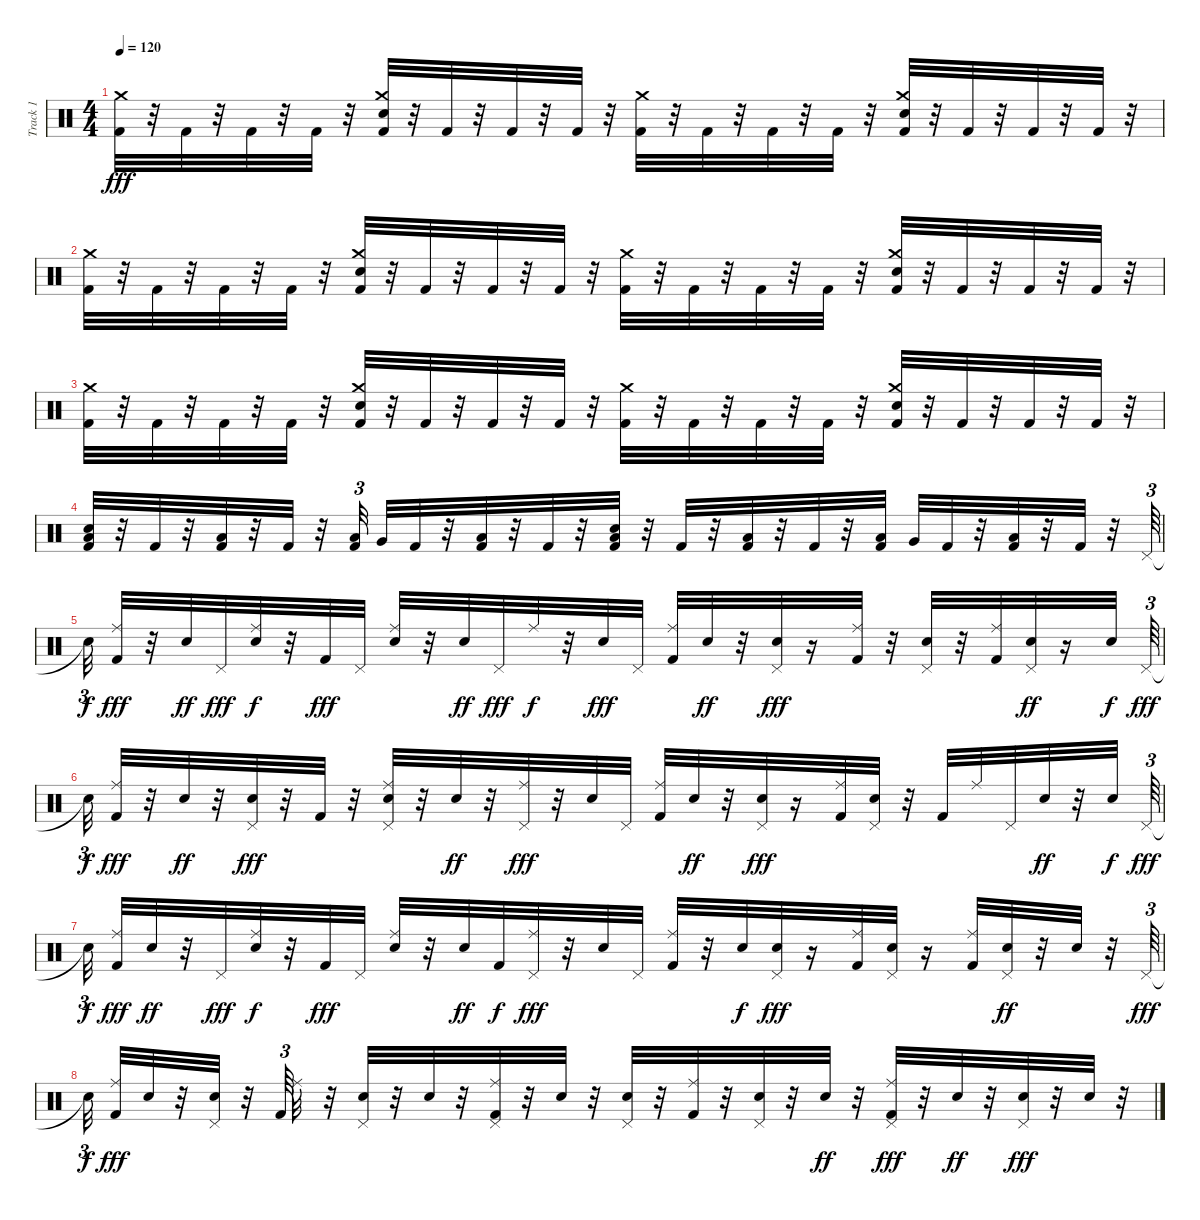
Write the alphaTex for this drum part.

\track ("Track 1" "Track 1") {instrument percussion}
\staff {score}
\articulation defaults
\ts (4 4)
\tempo 120
\clef neutral
\ks c
("Kick (hit) 2" "Crash medium (hit)").32{dy fff} r.32 "Kick (hit) 2".32 r.32 "Kick (hit) 2".32 r.32 "Kick (hit) 2".32 r.32 ("Crash medium (hit)" "Kick (hit) 2" "Snare (hit) 2").32 r.32 "Kick (hit) 2".32 r.32 "Kick (hit) 2".32 r.32 "Kick (hit) 2".32 r.32 ("Kick (hit) 2" "Crash medium (hit)").32 r.32 "Kick (hit) 2".32 r.32 "Kick (hit) 2".32 r.32 "Kick (hit) 2".32 r.32 ("Crash medium (hit)" "Kick (hit) 2" "Snare (hit) 2").32 r.32 "Kick (hit) 2".32 r.32 "Kick (hit) 2".32 r.32 "Kick (hit) 2".32 r.32 |
("Kick (hit) 2" "Crash medium (hit)").32 r.32 "Kick (hit) 2".32 r.32 "Kick (hit) 2".32 r.32 "Kick (hit) 2".32 r.32 ("Crash medium (hit)" "Kick (hit) 2" "Snare (hit) 2").32 r.32 "Kick (hit) 2".32 r.32 "Kick (hit) 2".32 r.32 "Kick (hit) 2".32 r.32 ("Kick (hit) 2" "Crash medium (hit)").32 r.32 "Kick (hit) 2".32 r.32 "Kick (hit) 2".32 r.32 "Kick (hit) 2".32 r.32 ("Snare (hit) 2" "Crash medium (hit)" "Kick (hit) 2").32 r.32 "Kick (hit) 2".32 r.32 "Kick (hit) 2".32 r.32 "Kick (hit) 2".32 r.32 |
("Kick (hit) 2" "Crash medium (hit)").32 r.32 "Kick (hit) 2".32 r.32 "Kick (hit) 2".32 r.32 "Kick (hit) 2".32 r.32 ("Crash medium (hit)" "Snare (hit) 2" "Kick (hit) 2").32 r.32 "Kick (hit) 2".32 r.32 "Kick (hit) 2".32 r.32 "Kick (hit) 2".32 r.32 ("Kick (hit) 2" "Crash medium (hit)").32 r.32 "Kick (hit) 2".32 r.32 "Kick (hit) 2".32 r.32 "Kick (hit) 2".32 r.32 ("Snare (hit) 2" "Crash medium (hit)" "Kick (hit) 2").32 r.32 "Kick (hit) 2".32 r.32 "Kick (hit) 2".32 r.32 "Kick (hit) 2".32 r.32 |
("Kick (hit) 2" "Low Floor Tom (hit)" "Snare (hit) 2").32 r.32 "Kick (hit) 2".32 r.32 ("Kick (hit) 2" "Low Floor Tom (hit)").32 r.32 "Kick (hit) 2".32 r.32 ("Kick (hit) 2" "Low Floor Tom (hit)").32{tu (3 2) beam splitsecondary} "Very Low Tom (hit)".32 "Kick (hit) 2".32 r.32 ("Kick (hit) 2" "Low Floor Tom (hit)").32 r.32 "Kick (hit) 2".32 r.32 ("Kick (hit) 2" "Low Floor Tom (hit)" "Snare (hit) 2").32 r.32 "Kick (hit) 2".32 r.32 ("Kick (hit) 2" "Low Floor Tom (hit)").32 r.32 "Kick (hit) 2".32 r.32 ("Kick (hit) 2" "Low Floor Tom (hit)").32 "Very Low Tom (hit)".32 "Kick (hit) 2".32 r.32 ("Kick (hit) 2" "Low Floor Tom (hit)").32 r.32 "Kick (hit) 2".32 r.32 "Pedal Hi-Hat (hit)".64{tu (3 2)} |
"Snare (hit)"{t}.32{tu (3 2) dy f} ("Kick (hit) 2" "Ride (middle)").32{dy fff} r.32 "Snare (hit) 2".32{dy ff} "Pedal Hi-Hat (hit)".32{dy fff} ("Snare (hit) 2" "Ride (middle)").32{dy f} r.32 "Kick (hit) 2".32{dy fff} "Pedal Hi-Hat (hit)".32 ("Ride (middle)" "Snare (hit) 2").32 r.32 "Snare (hit) 2".32{dy ff} "Pedal Hi-Hat (hit)".32{dy fff} "Ride (middle)".32{dy f} r.32 "Snare (hit) 2".32{dy fff} "Pedal Hi-Hat (hit)".32 ("Kick (hit) 2" "Ride (middle)").32 "Snare (hit) 2".32{dy ff} r.32 ("Pedal Hi-Hat (hit)" "Snare (hit) 2").32{dy fff} r.16 ("Kick (hit) 2" "Ride (middle)").32 r.32 ("Pedal Hi-Hat (hit)" "Snare (hit) 2").32 r.32 ("Ride (middle)" "Kick (hit) 2").32 ("Pedal Hi-Hat (hit)" "Snare (hit) 2").32{dy ff} r.16 "Snare (hit) 2".32{dy f} "Pedal Hi-Hat (hit)".64{tu (3 2) dy fff} |
"Snare (hit)"{t}.32{tu (3 2) dy f} ("Kick (hit) 2" "Ride (middle)").32{dy fff} r.32 "Snare (hit) 2".32{dy ff} r.32 ("Pedal Hi-Hat (hit)" "Snare (hit) 2").32{dy fff} r.32 "Kick (hit) 2".32 r.32 ("Pedal Hi-Hat (hit)" "Ride (middle)" "Snare (hit) 2").32 r.32 "Snare (hit) 2".32{dy ff} r.32 ("Pedal Hi-Hat (hit)" "Ride (middle)").32{dy fff} r.32 "Snare (hit) 2".32 "Pedal Hi-Hat (hit)".32 ("Kick (hit) 2" "Ride (middle)").32 "Snare (hit) 2".32{dy ff} r.32 ("Snare (hit) 2" "Pedal Hi-Hat (hit)").32{dy fff} r.16 ("Kick (hit) 2" "Ride (middle)").32 ("Pedal Hi-Hat (hit)" "Snare (hit) 2").32 r.32 "Kick (hit) 2".32 "Ride (middle)".32 "Pedal Hi-Hat (hit)".32 "Snare (hit) 2".32{dy ff} r.32 "Snare (hit) 2".32{dy f} "Pedal Hi-Hat (hit)".64{tu (3 2) dy fff} |
"Snare (hit)"{t}.32{tu (3 2) dy f beam splitsecondary} ("Kick (hit) 2" "Ride (middle)").32{dy fff} "Snare (hit) 2".32{dy ff} r.32 "Pedal Hi-Hat (hit)".32{dy fff} ("Snare (hit) 2" "Ride (middle)").32{dy f} r.32 "Kick (hit) 2".32{dy fff} "Pedal Hi-Hat (hit)".32 ("Snare (hit) 2" "Ride (middle)").32 r.32 "Snare (hit) 2".32{dy ff} "Kick (hit) 2".32{dy f} ("Pedal Hi-Hat (hit)" "Ride (middle)").32{dy fff} r.32 "Snare (hit) 2".32 "Pedal Hi-Hat (hit)".32 ("Kick (hit) 2" "Ride (middle)").32 r.32 "Snare (hit) 2".32{dy f} ("Snare (hit) 2" "Pedal Hi-Hat (hit)").32{dy fff} r.16 ("Kick (hit) 2" "Ride (middle)").32 ("Snare (hit) 2" "Pedal Hi-Hat (hit)").32 r.16 ("Kick (hit) 2" "Ride (middle)").32 ("Pedal Hi-Hat (hit)" "Snare (hit) 2").32{dy ff} r.32 "Snare (hit) 2".32 r.32 "Pedal Hi-Hat (hit)".64{tu (3 2) dy fff} |
"Snare (hit)"{t}.32{tu (3 2) dy f beam splitsecondary} ("Kick (hit) 2" "Ride (middle)").32{dy fff} "Snare (hit) 2".32 r.32 ("Pedal Hi-Hat (hit)" "Snare (hit) 2").32 r.32 "Kick (hit) 2".64{tu (3 2)} "Ride (middle)".32 r.32 ("Pedal Hi-Hat (hit)" "Snare (hit) 2").32 r.32 "Snare (hit) 2".32 r.32 ("Pedal Hi-Hat (hit)" "Kick (hit) 2" "Ride (middle)").32 r.32 "Snare (hit) 2".32 r.32 ("Snare (hit) 2" "Pedal Hi-Hat (hit)").32 r.32 ("Kick (hit) 2" "Ride (middle)").32 r.32 ("Snare (hit) 2" "Pedal Hi-Hat (hit)").32 r.32 "Snare (hit) 2".32{dy ff} r.32 ("Kick (hit) 2" "Pedal Hi-Hat (hit)" "Ride (middle)").32{dy fff} r.32 "Snare (hit) 2".32{dy ff} r.32 ("Pedal Hi-Hat (hit)" "Snare (hit) 2").32{dy fff} r.32 "Snare (hit) 2".32 r.32
